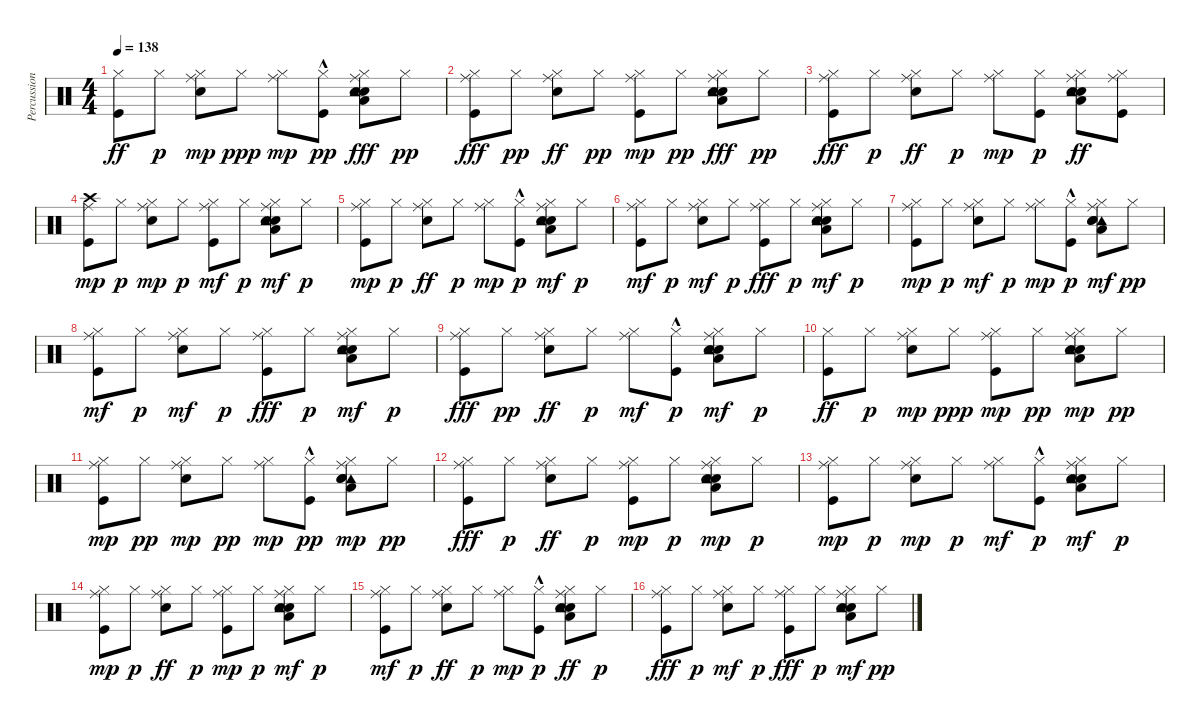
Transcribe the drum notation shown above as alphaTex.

\track ("Percussion" "Percussion") {instrument percussion}
\staff {score}
\articulation defaults
\ts (4 4)
\tempo 138
\clef neutral
\ks c
("Kick (hit)" "Hi-Hat (closed)").8{dy ff} "Hi-Hat (closed)".8{dy p} ("Electric Snare (hit)" "Hi-Hat (closed)" "Ride (middle)").8{dy mp} "Hi-Hat (closed)".8{dy ppp} ("Hi-Hat (closed)" "Ride (middle)").8{dy mp} ("Kick (hit)"{hac} "Hi-Hat (closed)").8{dy pp} ("Hi-Hat (closed)" "Ride (middle)" "Hand Clap (hit)" "Low Floor Tom (hit)" "Snare (hit) 2" "Tambourine (hit)").8{dy fff} "Hi-Hat (closed)".8{dy pp} |
("Hi-Hat (closed)" "Ride (middle)" "Kick (hit)").8{dy fff} "Hi-Hat (closed)".8{dy pp} ("Hi-Hat (closed)" "Ride (middle)" "Electric Snare (hit)").8{dy ff} "Hi-Hat (closed)".8{dy pp} ("Kick (hit)" "Hi-Hat (closed)" "Ride (middle)").8{dy mp} "Hi-Hat (closed)".8{dy pp} ("Hi-Hat (closed)" "Ride (middle)" "Hand Clap (hit)" "Snare (hit) 2" "Low Floor Tom (hit)" "Tambourine (hit)").8{dy fff} "Hi-Hat (closed)".8{dy pp} |
("Hi-Hat (closed)" "Ride (middle)" "Kick (hit)").8{dy fff} "Hi-Hat (closed)".8{dy p} ("Hi-Hat (closed)" "Ride (middle)" "Electric Snare (hit)").8{dy ff} "Hi-Hat (closed)".8{dy p} ("Hi-Hat (closed)" "Ride (middle)").8{dy mp} ("Kick (hit)" "Hi-Hat (closed)").8{dy p} ("Hi-Hat (closed)" "Ride (middle)" "Snare (hit) 2" "Hand Clap (hit)" "Tambourine (hit)" "Low Floor Tom (hit)").8{dy ff} ("Hi-Hat (closed)" "Kick (hit)" "Ride (middle)").8 |
("Kick (hit)" "Crash high (hit)" "Ride (middle)").8{dy mp} "Hi-Hat (closed)".8{dy p} ("Electric Snare (hit)" "Hi-Hat (closed)" "Ride (middle)").8{dy mp} "Hi-Hat (closed)".8{dy p} ("Kick (hit)" "Hi-Hat (closed)" "Ride (middle)").8{dy mf} "Hi-Hat (closed)".8{dy p} ("Snare (hit) 2" "Hand Clap (hit)" "Low Floor Tom (hit)" "Tambourine (hit)" "Hi-Hat (closed)" "Ride (middle)").8{dy mf} "Hi-Hat (closed)".8{dy p} |
("Kick (hit)" "Hi-Hat (closed)" "Ride (middle)").8{dy mp} "Hi-Hat (closed)".8{dy p} ("Hi-Hat (closed)" "Ride (middle)" "Electric Snare (hit)").8{dy ff} "Hi-Hat (closed)".8{dy p} ("Hi-Hat (closed)" "Ride (middle)").8{dy mp} ("Kick (hit)"{hac} "Hi-Hat (closed)").8{dy p} ("Snare (hit) 2" "Hand Clap (hit)" "Tambourine (hit)" "Low Floor Tom (hit)" "Hi-Hat (closed)" "Ride (middle)").8{dy mf} "Hi-Hat (closed)".8{dy p} |
("Kick (hit)" "Hi-Hat (closed)" "Ride (middle)").8{dy mf} "Hi-Hat (closed)".8{dy p} ("Electric Snare (hit)" "Hi-Hat (closed)" "Ride (middle)").8{dy mf} "Hi-Hat (closed)".8{dy p} ("Hi-Hat (closed)" "Ride (middle)" "Kick (hit)").8{dy fff} "Hi-Hat (closed)".8{dy p} ("Hand Clap (hit)" "Snare (hit) 2" "Low Floor Tom (hit)" "Tambourine (hit)" "Hi-Hat (closed)" "Ride (middle)").8{dy mf} "Hi-Hat (closed)".8{dy p} |
("Kick (hit)" "Hi-Hat (closed)" "Ride (middle)").8{dy mp} "Hi-Hat (closed)".8{dy p} ("Electric Snare (hit)" "Hi-Hat (closed)" "Ride (middle)").8{dy mf} "Hi-Hat (closed)".8{dy p} ("Hi-Hat (closed)" "Ride (middle)").8{dy mp} ("Kick (hit)"{hac} "Hi-Hat (closed)").8{dy p} ("Tambourine (hit)" "Hand Clap (hit)" "Low Floor Tom (hit)" "Snare (hit) 2" "Hi-Hat (closed)" "Ride (middle)").8{dy mf} "Hi-Hat (closed)".8{dy pp} |
("Kick (hit)" "Hi-Hat (closed)" "Ride (middle)").8{dy mf} "Hi-Hat (closed)".8{dy p} ("Electric Snare (hit)" "Hi-Hat (closed)" "Ride (middle)").8{dy mf} "Hi-Hat (closed)".8{dy p} ("Hi-Hat (closed)" "Ride (middle)" "Kick (hit)").8{dy fff} "Hi-Hat (closed)".8{dy p} ("Snare (hit) 2" "Hand Clap (hit)" "Low Floor Tom (hit)" "Tambourine (hit)" "Hi-Hat (closed)" "Ride (middle)").8{dy mf} "Hi-Hat (closed)".8{dy p} |
("Hi-Hat (closed)" "Ride (middle)" "Kick (hit)").8{dy fff} "Hi-Hat (closed)".8{dy pp} ("Hi-Hat (closed)" "Ride (middle)" "Electric Snare (hit)").8{dy ff} "Hi-Hat (closed)".8{dy p} ("Hi-Hat (closed)" "Ride (middle)").8{dy mf} ("Kick (hit)"{hac} "Hi-Hat (closed)").8{dy p} ("Snare (hit) 2" "Hand Clap (hit)" "Tambourine (hit)" "Low Floor Tom (hit)" "Hi-Hat (closed)" "Ride (middle)").8{dy mf} "Hi-Hat (closed)".8{dy p} |
("Kick (hit)" "Hi-Hat (closed)").8{dy ff} "Hi-Hat (closed)".8{dy p} ("Electric Snare (hit)" "Hi-Hat (closed)" "Ride (middle)").8{dy mp} "Hi-Hat (closed)".8{dy ppp} ("Kick (hit)" "Hi-Hat (closed)" "Ride (middle)").8{dy mp} "Hi-Hat (closed)".8{dy pp} ("Hand Clap (hit)" "Snare (hit) 2" "Low Floor Tom (hit)" "Tambourine (hit)" "Hi-Hat (closed)" "Ride (middle)").8{dy mp} "Hi-Hat (closed)".8{dy pp} |
("Kick (hit)" "Hi-Hat (closed)" "Ride (middle)").8{dy mp} "Hi-Hat (closed)".8{dy pp} ("Electric Snare (hit)" "Hi-Hat (closed)" "Ride (middle)").8{dy mp} "Hi-Hat (closed)".8{dy pp} ("Hi-Hat (closed)" "Ride (middle)").8{dy mp} ("Kick (hit)"{hac} "Hi-Hat (closed)").8{dy pp} ("Tambourine (hit)" "Hand Clap (hit)" "Low Floor Tom (hit)" "Snare (hit) 2" "Hi-Hat (closed)" "Ride (middle)").8{dy mp} "Hi-Hat (closed)".8{dy pp} |
("Hi-Hat (closed)" "Ride (middle)" "Kick (hit)").8{dy fff} "Hi-Hat (closed)".8{dy p} ("Hi-Hat (closed)" "Ride (middle)" "Electric Snare (hit)").8{dy ff} "Hi-Hat (closed)".8{dy p} ("Kick (hit)" "Hi-Hat (closed)" "Ride (middle)").8{dy mp} "Hi-Hat (closed)".8{dy p} ("Snare (hit) 2" "Tambourine (hit)" "Low Floor Tom (hit)" "Hand Clap (hit)" "Hi-Hat (closed)" "Ride (middle)").8{dy mp} "Hi-Hat (closed)".8{dy p} |
("Kick (hit)" "Hi-Hat (closed)" "Ride (middle)").8{dy mp} "Hi-Hat (closed)".8{dy p} ("Electric Snare (hit)" "Hi-Hat (closed)" "Ride (middle)").8{dy mp} "Hi-Hat (closed)".8{dy p} ("Hi-Hat (closed)" "Ride (middle)").8{dy mf} ("Kick (hit)"{hac} "Hi-Hat (closed)").8{dy p} ("Hand Clap (hit)" "Low Floor Tom (hit)" "Snare (hit) 2" "Tambourine (hit)" "Hi-Hat (closed)" "Ride (middle)").8{dy mf} "Hi-Hat (closed)".8{dy p} |
("Kick (hit)" "Hi-Hat (closed)" "Ride (middle)").8{dy mp} "Hi-Hat (closed)".8{dy p} ("Hi-Hat (closed)" "Ride (middle)" "Electric Snare (hit)").8{dy ff} "Hi-Hat (closed)".8{dy p} ("Kick (hit)" "Hi-Hat (closed)" "Ride (middle)").8{dy mp} "Hi-Hat (closed)".8{dy p} ("Hand Clap (hit)" "Snare (hit) 2" "Low Floor Tom (hit)" "Tambourine (hit)" "Hi-Hat (closed)" "Ride (middle)").8{dy mf} "Hi-Hat (closed)".8{dy p} |
("Kick (hit)" "Hi-Hat (closed)" "Ride (middle)").8{dy mf} "Hi-Hat (closed)".8{dy p} ("Hi-Hat (closed)" "Ride (middle)" "Electric Snare (hit)").8{dy ff} "Hi-Hat (closed)".8{dy p} ("Hi-Hat (closed)" "Ride (middle)").8{dy mp} ("Kick (hit)"{hac} "Hi-Hat (closed)").8{dy p} ("Hi-Hat (closed)" "Ride (middle)" "Snare (hit) 2" "Hand Clap (hit)" "Tambourine (hit)" "Low Floor Tom (hit)").8{dy ff} "Hi-Hat (closed)".8{dy p} |
("Hi-Hat (closed)" "Ride (middle)" "Kick (hit)").8{dy fff} "Hi-Hat (closed)".8{dy p} ("Electric Snare (hit)" "Hi-Hat (closed)" "Ride (middle)").8{dy mf} "Hi-Hat (closed)".8{dy p} ("Hi-Hat (closed)" "Ride (middle)" "Kick (hit)").8{dy fff} "Hi-Hat (closed)".8{dy p} ("Snare (hit) 2" "Hand Clap (hit)" "Low Floor Tom (hit)" "Tambourine (hit)" "Hi-Hat (closed)" "Ride (middle)").8{dy mf} "Hi-Hat (closed)".8{dy pp}
